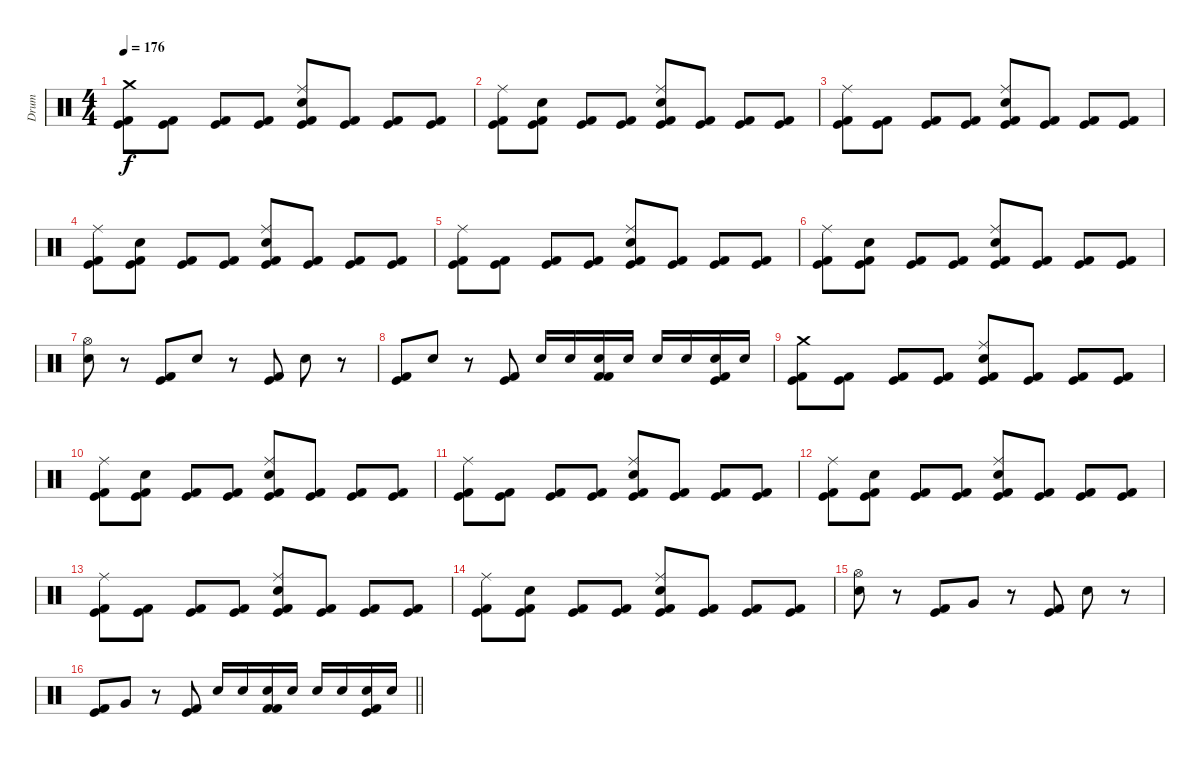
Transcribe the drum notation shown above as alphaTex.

\track ("Drum" "Drum") {instrument percussion}
\staff {score}
\articulation defaults
\ts (4 4)
\tempo 176
\clef neutral
\ks c
("Crash medium (hit)" "Kick (hit)" "Kick (hit) 2").8{dy f} ("Kick (hit)" "Kick (hit) 2").8 ("Kick (hit)" "Kick (hit) 2").8 ("Kick (hit)" "Kick (hit) 2").8 ("Ride (middle)" "Electric Snare (hit)" "Kick (hit)" "Kick (hit) 2").8 ("Kick (hit)" "Kick (hit) 2").8 ("Kick (hit)" "Kick (hit) 2").8 ("Kick (hit)" "Kick (hit) 2").8 |
("Ride (middle)" "Kick (hit)" "Kick (hit) 2").8 ("Electric Snare (hit)" "Kick (hit)" "Kick (hit) 2").8 ("Kick (hit)" "Kick (hit) 2").8 ("Kick (hit)" "Kick (hit) 2").8 ("Ride (middle)" "Electric Snare (hit)" "Kick (hit)" "Kick (hit) 2").8 ("Kick (hit)" "Kick (hit) 2").8 ("Kick (hit)" "Kick (hit) 2").8 ("Kick (hit)" "Kick (hit) 2").8 |
("Ride (middle)" "Kick (hit)" "Kick (hit) 2").8 ("Kick (hit)" "Kick (hit) 2").8 ("Kick (hit)" "Kick (hit) 2").8 ("Kick (hit)" "Kick (hit) 2").8 ("Ride (middle)" "Electric Snare (hit)" "Kick (hit)" "Kick (hit) 2").8 ("Kick (hit)" "Kick (hit) 2").8 ("Kick (hit)" "Kick (hit) 2").8 ("Kick (hit)" "Kick (hit) 2").8 |
("Ride (middle)" "Kick (hit)" "Kick (hit) 2").8 ("Electric Snare (hit)" "Kick (hit)" "Kick (hit) 2").8 ("Kick (hit)" "Kick (hit) 2").8 ("Kick (hit)" "Kick (hit) 2").8 ("Ride (middle)" "Electric Snare (hit)" "Kick (hit)" "Kick (hit) 2").8 ("Kick (hit)" "Kick (hit) 2").8 ("Kick (hit)" "Kick (hit) 2").8 ("Kick (hit)" "Kick (hit) 2").8 |
("Ride (middle)" "Kick (hit)" "Kick (hit) 2").8 ("Kick (hit)" "Kick (hit) 2").8 ("Kick (hit)" "Kick (hit) 2").8 ("Kick (hit)" "Kick (hit) 2").8 ("Ride (middle)" "Electric Snare (hit)" "Kick (hit)" "Kick (hit) 2").8 ("Kick (hit)" "Kick (hit) 2").8 ("Kick (hit)" "Kick (hit) 2").8 ("Kick (hit)" "Kick (hit) 2").8 |
("Ride (middle)" "Kick (hit)" "Kick (hit) 2").8 ("Electric Snare (hit)" "Kick (hit)" "Kick (hit) 2").8 ("Kick (hit)" "Kick (hit) 2").8 ("Kick (hit)" "Kick (hit) 2").8 ("Ride (middle)" "Electric Snare (hit)" "Kick (hit)" "Kick (hit) 2").8 ("Kick (hit)" "Kick (hit) 2").8 ("Kick (hit)" "Kick (hit) 2").8 ("Kick (hit)" "Kick (hit) 2").8 |
("Hi-Hat (open)" "Electric Snare (hit)").8 r.8 ("Kick (hit)" "Kick (hit) 2").8 "Electric Snare (hit)".8 r.8 ("Kick (hit)" "Kick (hit) 2").8 "Electric Snare (hit)".8 r.8 |
("Kick (hit)" "Kick (hit) 2").8 "Electric Snare (hit)".8 r.8 ("Kick (hit)" "Kick (hit) 2").8 "Electric Snare (hit)".16 "Electric Snare (hit)".16 ("Electric Snare (hit)" "Kick (hit) 2" "Kick (hit) 2").16 "Electric Snare (hit)".16 "Electric Snare (hit)".16 "Electric Snare (hit)".16 ("Electric Snare (hit)" "Kick (hit)" "Kick (hit) 2").16 "Electric Snare (hit)".16 |
("Crash medium (hit)" "Kick (hit)" "Kick (hit) 2").8 ("Kick (hit)" "Kick (hit) 2").8 ("Kick (hit)" "Kick (hit) 2").8 ("Kick (hit)" "Kick (hit) 2").8 ("Ride (middle)" "Electric Snare (hit)" "Kick (hit)" "Kick (hit) 2").8 ("Kick (hit)" "Kick (hit) 2").8 ("Kick (hit)" "Kick (hit) 2").8 ("Kick (hit)" "Kick (hit) 2").8 |
("Ride (middle)" "Kick (hit)" "Kick (hit) 2").8 ("Electric Snare (hit)" "Kick (hit)" "Kick (hit) 2").8 ("Kick (hit)" "Kick (hit) 2").8 ("Kick (hit)" "Kick (hit) 2").8 ("Ride (middle)" "Electric Snare (hit)" "Kick (hit)" "Kick (hit) 2").8 ("Kick (hit)" "Kick (hit) 2").8 ("Kick (hit)" "Kick (hit) 2").8 ("Kick (hit)" "Kick (hit) 2").8 |
("Ride (middle)" "Kick (hit)" "Kick (hit) 2").8 ("Kick (hit)" "Kick (hit) 2").8 ("Kick (hit)" "Kick (hit) 2").8 ("Kick (hit)" "Kick (hit) 2").8 ("Ride (middle)" "Electric Snare (hit)" "Kick (hit)" "Kick (hit) 2").8 ("Kick (hit)" "Kick (hit) 2").8 ("Kick (hit)" "Kick (hit) 2").8 ("Kick (hit)" "Kick (hit) 2").8 |
("Ride (middle)" "Kick (hit)" "Kick (hit) 2").8 ("Electric Snare (hit)" "Kick (hit)" "Kick (hit) 2").8 ("Kick (hit)" "Kick (hit) 2").8 ("Kick (hit)" "Kick (hit) 2").8 ("Ride (middle)" "Electric Snare (hit)" "Kick (hit)" "Kick (hit) 2").8 ("Kick (hit)" "Kick (hit) 2").8 ("Kick (hit)" "Kick (hit) 2").8 ("Kick (hit)" "Kick (hit) 2").8 |
("Ride (middle)" "Kick (hit)" "Kick (hit) 2").8 ("Kick (hit)" "Kick (hit) 2").8 ("Kick (hit)" "Kick (hit) 2").8 ("Kick (hit)" "Kick (hit) 2").8 ("Ride (middle)" "Electric Snare (hit)" "Kick (hit)" "Kick (hit) 2").8 ("Kick (hit)" "Kick (hit) 2").8 ("Kick (hit)" "Kick (hit) 2").8 ("Kick (hit)" "Kick (hit) 2").8 |
("Ride (middle)" "Kick (hit)" "Kick (hit) 2").8 ("Electric Snare (hit)" "Kick (hit)" "Kick (hit) 2").8 ("Kick (hit)" "Kick (hit) 2").8 ("Kick (hit)" "Kick (hit) 2").8 ("Ride (middle)" "Electric Snare (hit)" "Kick (hit)" "Kick (hit) 2").8 ("Kick (hit)" "Kick (hit) 2").8 ("Kick (hit)" "Kick (hit) 2").8 ("Kick (hit)" "Kick (hit) 2").8 |
("Hi-Hat (open)" "Electric Snare (hit)").8 r.8 ("Kick (hit)" "Kick (hit) 2").8 "Very Low Tom (hit)".8 r.8 ("Kick (hit)" "Kick (hit) 2").8 "Electric Snare (hit)".8 r.8 |
\barLineRight lightlight
("Kick (hit)" "Kick (hit) 2").8 "Very Low Tom (hit)".8 r.8 ("Kick (hit)" "Kick (hit) 2").8 "Electric Snare (hit)".16 "Electric Snare (hit)".16 ("Electric Snare (hit)" "Kick (hit) 2" "Kick (hit) 2").16 "Electric Snare (hit)".16 "Electric Snare (hit)".16 "Electric Snare (hit)".16 ("Electric Snare (hit)" "Kick (hit)" "Kick (hit) 2").16 "Electric Snare (hit)".16
